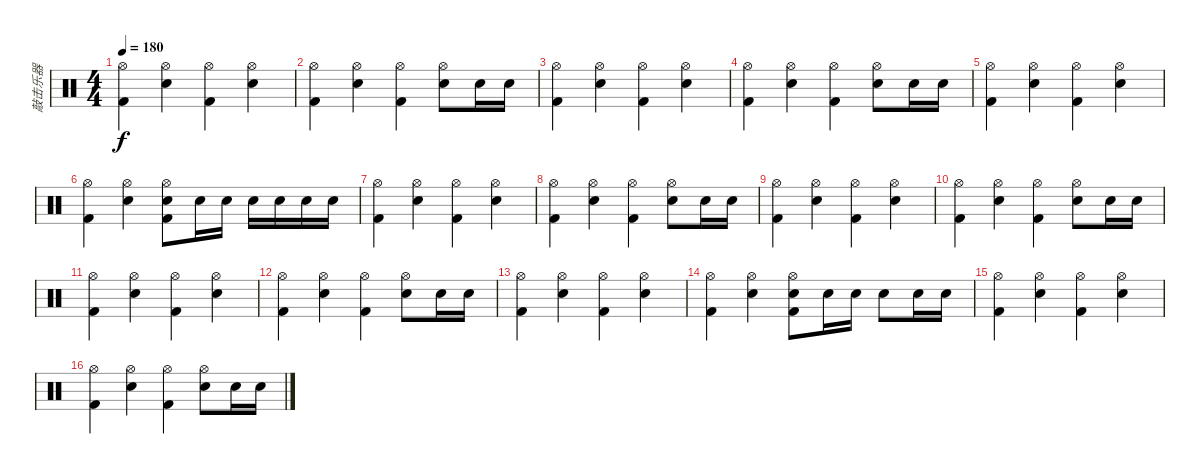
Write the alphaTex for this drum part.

\track ("敲击乐器" "敲击乐器") {instrument percussion}
\staff {score}
\articulation defaults
\ts (4 4)
\tempo 180
\clef neutral
\ks c
("Hi-Hat (open)" "Kick (hit) 2").4{dy f} ("Hi-Hat (open)" "Snare (hit) 2").4 ("Hi-Hat (open)" "Kick (hit) 2").4 ("Hi-Hat (open)" "Snare (hit) 2").4 |
("Hi-Hat (open)" "Kick (hit) 2").4 ("Hi-Hat (open)" "Snare (hit) 2").4 ("Hi-Hat (open)" "Kick (hit) 2").4 ("Hi-Hat (open)" "Snare (hit) 2").8 "Snare (hit) 2".16 "Snare (hit) 2".16 |
("Hi-Hat (open)" "Kick (hit) 2").4 ("Hi-Hat (open)" "Snare (hit) 2").4 ("Hi-Hat (open)" "Kick (hit) 2").4 ("Hi-Hat (open)" "Snare (hit) 2").4 |
("Hi-Hat (open)" "Kick (hit) 2").4 ("Hi-Hat (open)" "Snare (hit) 2").4 ("Hi-Hat (open)" "Kick (hit) 2").4 ("Hi-Hat (open)" "Snare (hit) 2").8 "Snare (hit) 2".16 "Snare (hit) 2".16 |
("Hi-Hat (open)" "Kick (hit) 2").4 ("Hi-Hat (open)" "Snare (hit) 2").4 ("Hi-Hat (open)" "Kick (hit) 2").4 ("Hi-Hat (open)" "Snare (hit) 2").4 |
("Hi-Hat (open)" "Kick (hit) 2").4 ("Hi-Hat (open)" "Snare (hit) 2").4 ("Hi-Hat (open)" "Snare (hit) 2" "Kick (hit) 2").8 "Snare (hit) 2".16 "Snare (hit) 2".16 "Snare (hit) 2".16 "Snare (hit) 2".16 "Snare (hit) 2".16 "Snare (hit) 2".16 |
("Hi-Hat (open)" "Kick (hit) 2").4 ("Hi-Hat (open)" "Snare (hit) 2").4 ("Hi-Hat (open)" "Kick (hit) 2").4 ("Hi-Hat (open)" "Snare (hit) 2").4 |
("Hi-Hat (open)" "Kick (hit) 2").4 ("Hi-Hat (open)" "Snare (hit) 2").4 ("Hi-Hat (open)" "Kick (hit) 2").4 ("Hi-Hat (open)" "Snare (hit) 2").8 "Snare (hit) 2".16 "Snare (hit) 2".16 |
("Hi-Hat (open)" "Kick (hit) 2").4 ("Hi-Hat (open)" "Snare (hit) 2").4 ("Hi-Hat (open)" "Kick (hit) 2").4 ("Hi-Hat (open)" "Snare (hit) 2").4 |
("Hi-Hat (open)" "Kick (hit) 2").4 ("Hi-Hat (open)" "Snare (hit) 2").4 ("Hi-Hat (open)" "Kick (hit) 2").4 ("Hi-Hat (open)" "Snare (hit) 2").8 "Snare (hit) 2".16 "Snare (hit) 2".16 |
("Hi-Hat (open)" "Kick (hit) 2").4 ("Hi-Hat (open)" "Snare (hit) 2").4 ("Hi-Hat (open)" "Kick (hit) 2").4 ("Hi-Hat (open)" "Snare (hit) 2").4 |
("Hi-Hat (open)" "Kick (hit) 2").4 ("Hi-Hat (open)" "Snare (hit) 2").4 ("Hi-Hat (open)" "Kick (hit) 2").4 ("Hi-Hat (open)" "Snare (hit) 2").8 "Snare (hit) 2".16 "Snare (hit) 2".16 |
("Hi-Hat (open)" "Kick (hit) 2").4 ("Hi-Hat (open)" "Snare (hit) 2").4 ("Hi-Hat (open)" "Kick (hit) 2").4 ("Hi-Hat (open)" "Snare (hit) 2").4 |
("Hi-Hat (open)" "Kick (hit) 2").4 ("Hi-Hat (open)" "Snare (hit) 2").4 ("Hi-Hat (open)" "Snare (hit) 2" "Kick (hit) 2").8 "Snare (hit) 2".16 "Snare (hit) 2".16 "Snare (hit) 2".8 "Snare (hit) 2".16 "Snare (hit) 2".16 |
("Hi-Hat (open)" "Kick (hit) 2").4 ("Hi-Hat (open)" "Snare (hit) 2").4 ("Hi-Hat (open)" "Kick (hit) 2").4 ("Hi-Hat (open)" "Snare (hit) 2").4 |
("Hi-Hat (open)" "Kick (hit) 2").4 ("Hi-Hat (open)" "Snare (hit) 2").4 ("Hi-Hat (open)" "Kick (hit) 2").4 ("Hi-Hat (open)" "Snare (hit) 2").8 "Snare (hit) 2".16 "Snare (hit) 2".16
